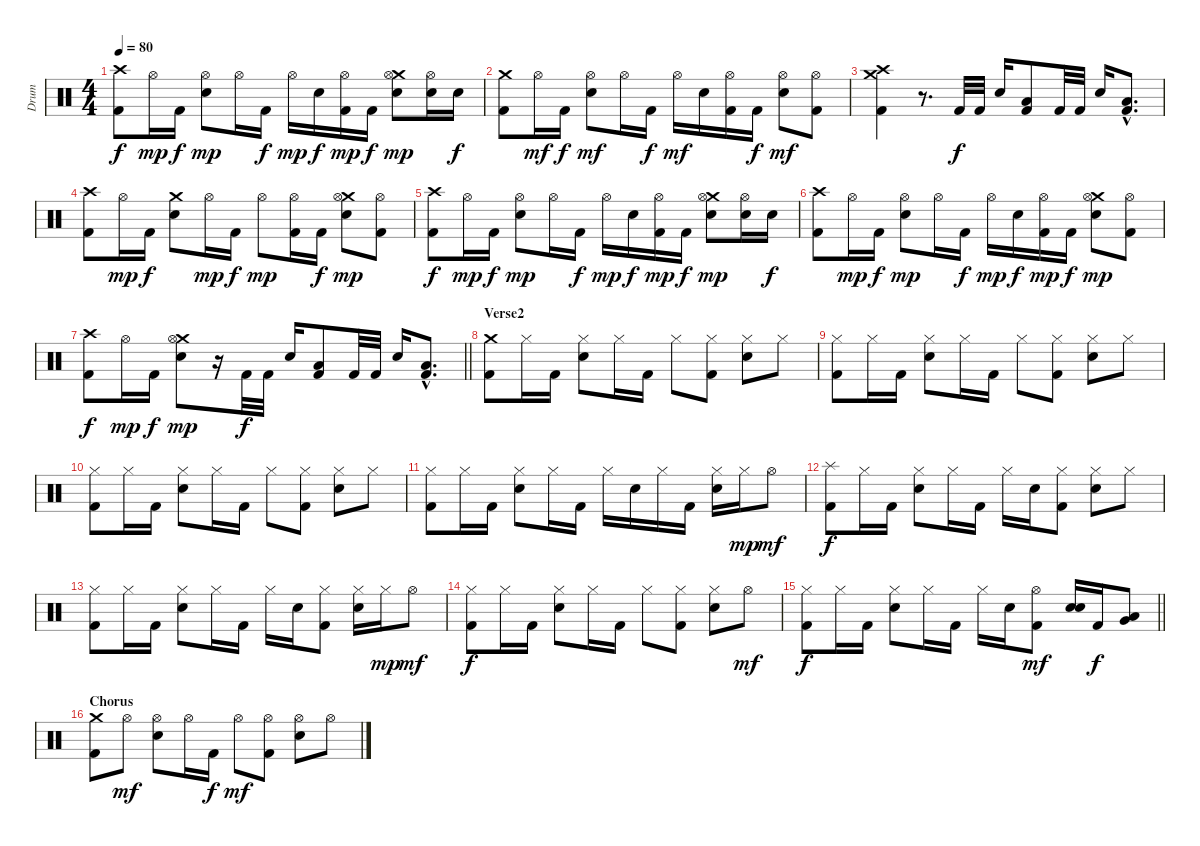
\track ("Drum" "Drum") {instrument percussion}
\staff {score}
\articulation defaults
\ts (4 4)
\tempo 80
\clef neutral
\ks c
("Crash high (hit)" "Kick (hit) 2").8{dy f} "Hi-Hat (open)".16{dy mp} "Kick (hit) 2".16{dy f} ("Hi-Hat (open)" "Snare (hit) 2").8{dy mp} "Hi-Hat (open)".16 "Kick (hit) 2".16{dy f} "Hi-Hat (open)".16{dy mp} "Snare (hit) 2".16{dy f} ("Hi-Hat (open)" "Kick (hit) 2").16{dy mp} "Kick (hit) 2".16{dy f} ("Crash medium (hit)" "Hi-Hat (open)" "Snare (hit) 2").8{dy mp} ("Hi-Hat (open)" "Snare (hit) 2").16 "Snare (hit) 2".16{dy f} |
("Crash medium (hit)" "Kick (hit) 2").8 "Hi-Hat (open)".16{dy mf} "Kick (hit) 2".16{dy f} ("Hi-Hat (open)" "Snare (hit) 2").8{dy mf} "Hi-Hat (open)".16 "Kick (hit) 2".16{dy f} "Hi-Hat (open)".16{dy mf} "Snare (hit) 2".16 ("Hi-Hat (open)" "Kick (hit) 2").16 "Kick (hit) 2".16{dy f} ("Hi-Hat (open)" "Snare (hit) 2").8{dy mf} ("Hi-Hat (open)" "Kick (hit) 2").8 |
("Crash high (hit)" "Crash medium (hit)" "Kick (hit) 2").4 r.8{d} "Kick (hit) 2".32{dy f} "Kick (hit) 2".32 "Snare (hit) 2".16 ("Low Floor Tom (hit)" "Kick (hit) 2").8 "Kick (hit) 2".32 "Kick (hit) 2".32 "Snare (hit) 2".16 ("Low Floor Tom (hit)"{hac} "Kick (hit) 2"{hac}).8{d} |
("Crash high (hit)" "Kick (hit) 2").8 "Hi-Hat (open)".16{dy mp} "Kick (hit) 2".16{dy f} ("Crash medium (hit)" "Snare (hit) 2").8 "Hi-Hat (open)".16{dy mp} "Kick (hit) 2".16{dy f} "Hi-Hat (open)".8{dy mp} ("Hi-Hat (open)" "Kick (hit) 2").16 "Kick (hit) 2".16{dy f} ("Crash medium (hit)" "Hi-Hat (open)" "Snare (hit) 2").8{dy mp} ("Hi-Hat (open)" "Kick (hit) 2").8 |
("Crash high (hit)" "Kick (hit) 2").8{dy f} "Hi-Hat (open)".16{dy mp} "Kick (hit) 2".16{dy f} ("Hi-Hat (open)" "Snare (hit) 2").8{dy mp} "Hi-Hat (open)".16 "Kick (hit) 2".16{dy f} "Hi-Hat (open)".16{dy mp} "Snare (hit) 2".16{dy f} ("Hi-Hat (open)" "Kick (hit) 2").16{dy mp} "Kick (hit) 2".16{dy f} ("Crash medium (hit)" "Hi-Hat (open)" "Snare (hit) 2").8{dy mp} ("Hi-Hat (open)" "Snare (hit) 2").16 "Snare (hit) 2".16{dy f} |
("Crash high (hit)" "Kick (hit) 2").8 "Hi-Hat (open)".16{dy mp} "Kick (hit) 2".16{dy f} ("Hi-Hat (open)" "Snare (hit) 2").8{dy mp} "Hi-Hat (open)".16 "Kick (hit) 2".16{dy f} "Hi-Hat (open)".16{dy mp} "Snare (hit) 2".16{dy f} ("Hi-Hat (open)" "Kick (hit) 2").16{dy mp} "Kick (hit) 2".16{dy f} ("Crash medium (hit)" "Hi-Hat (open)" "Snare (hit) 2").8{dy mp} ("Hi-Hat (open)" "Kick (hit) 2").8 |
\barLineRight lightlight
("Crash high (hit)" "Kick (hit) 2").8{dy f} "Hi-Hat (open)".16{dy mp} "Kick (hit) 2".16{dy f} ("Crash medium (hit)" "Hi-Hat (open)" "Snare (hit) 2").8{dy mp} r.16 "Kick (hit) 2".32{dy f} "Kick (hit) 2".32 "Snare (hit) 2".16 ("Low Floor Tom (hit)" "Kick (hit) 2").8 "Kick (hit) 2".32 "Kick (hit) 2".32 "Snare (hit) 2".16 ("Low Floor Tom (hit)"{hac} "Kick (hit) 2"{hac}).8{d} |
\section ("" "Verse2")
("Crash medium (hit)" "Kick (hit) 2").8 "Hi-Hat (closed)".16 "Kick (hit) 2".16 ("Hi-Hat (closed)" "Electric Snare (hit)").8 "Hi-Hat (closed)".16 "Kick (hit) 2".16 "Hi-Hat (closed)".8 ("Hi-Hat (closed)" "Kick (hit) 2").8 ("Hi-Hat (closed)" "Electric Snare (hit)").8 "Hi-Hat (closed)".8 |
("Hi-Hat (closed)" "Kick (hit) 2").8 "Hi-Hat (closed)".16 "Kick (hit) 2".16 ("Hi-Hat (closed)" "Electric Snare (hit)").8 "Hi-Hat (closed)".16 "Kick (hit) 2".16 "Hi-Hat (closed)".8 ("Hi-Hat (closed)" "Kick (hit) 2").8 ("Hi-Hat (closed)" "Electric Snare (hit)").8 "Hi-Hat (closed)".8 |
("Hi-Hat (closed)" "Kick (hit) 2").8 "Hi-Hat (closed)".16 "Kick (hit) 2".16 ("Hi-Hat (closed)" "Electric Snare (hit)").8 "Hi-Hat (closed)".16 "Kick (hit) 2".16 "Hi-Hat (closed)".8 ("Hi-Hat (closed)" "Kick (hit) 2").8 ("Hi-Hat (closed)" "Electric Snare (hit)").8 "Hi-Hat (closed)".8 |
("Hi-Hat (closed)" "Kick (hit) 2").8 "Hi-Hat (closed)".16 "Kick (hit) 2".16 ("Hi-Hat (closed)" "Electric Snare (hit)").8 "Hi-Hat (closed)".16 "Kick (hit) 2".16 "Hi-Hat (closed)".16 "Electric Snare (hit)".16 "Hi-Hat (closed)".16 "Kick (hit) 2".16 ("Hi-Hat (closed)" "Electric Snare (hit)").16 "Hi-Hat (closed)".16{dy mp} "Hi-Hat (open)".8{dy mf} |
("Splash (hit)" "Kick (hit) 2").8{dy f} "Hi-Hat (closed)".16 "Kick (hit) 2".16 ("Hi-Hat (closed)" "Electric Snare (hit)").8 "Hi-Hat (closed)".16 "Kick (hit) 2".16 "Hi-Hat (closed)".16 "Electric Snare (hit)".16 ("Hi-Hat (closed)" "Kick (hit) 2").8 ("Hi-Hat (closed)" "Electric Snare (hit)").8 "Hi-Hat (closed)".8 |
("Hi-Hat (closed)" "Kick (hit) 2").8 "Hi-Hat (closed)".16 "Kick (hit) 2".16 ("Hi-Hat (closed)" "Electric Snare (hit)").8 "Hi-Hat (closed)".16 "Kick (hit) 2".16 "Hi-Hat (closed)".16 "Electric Snare (hit)".16 ("Hi-Hat (closed)" "Kick (hit) 2").8 ("Hi-Hat (closed)" "Electric Snare (hit)").16 "Hi-Hat (closed)".16{dy mp} "Hi-Hat (open)".8{dy mf} |
("Hi-Hat (closed)" "Kick (hit) 2").8{dy f} "Hi-Hat (closed)".16 "Kick (hit) 2".16 ("Hi-Hat (closed)" "Electric Snare (hit)").8 "Hi-Hat (closed)".16 "Kick (hit) 2".16 "Hi-Hat (closed)".8 ("Hi-Hat (closed)" "Kick (hit) 2").8 ("Hi-Hat (closed)" "Electric Snare (hit)").8 "Hi-Hat (open)".8{dy mf} |
\barLineRight lightlight
("Hi-Hat (closed)" "Kick (hit) 2").8{dy f} "Hi-Hat (closed)".16 "Kick (hit) 2".16 ("Hi-Hat (closed)" "Electric Snare (hit)").8 "Hi-Hat (closed)".16 "Kick (hit) 2".16 "Hi-Hat (closed)".16 "Electric Snare (hit)".16 ("Hi-Hat (open)" "Kick (hit) 2").8{dy mf} ("Snare (hit) 2" "Snare (hit) 2").16 "Kick (hit) 2".16{dy f} ("Low Tom (hit)" "Very Low Tom (hit)").8 |
\section ("" "Chorus")
("Crash medium (hit)" "Kick (hit) 2").8 "Hi-Hat (open)".8{dy mf} ("Hi-Hat (open)" "Snare (hit) 2").8 "Hi-Hat (open)".16 "Kick (hit) 2".16{dy f} "Hi-Hat (open)".8{dy mf} ("Hi-Hat (open)" "Kick (hit) 2").8 ("Hi-Hat (open)" "Snare (hit) 2").8 "Hi-Hat (open)".8
